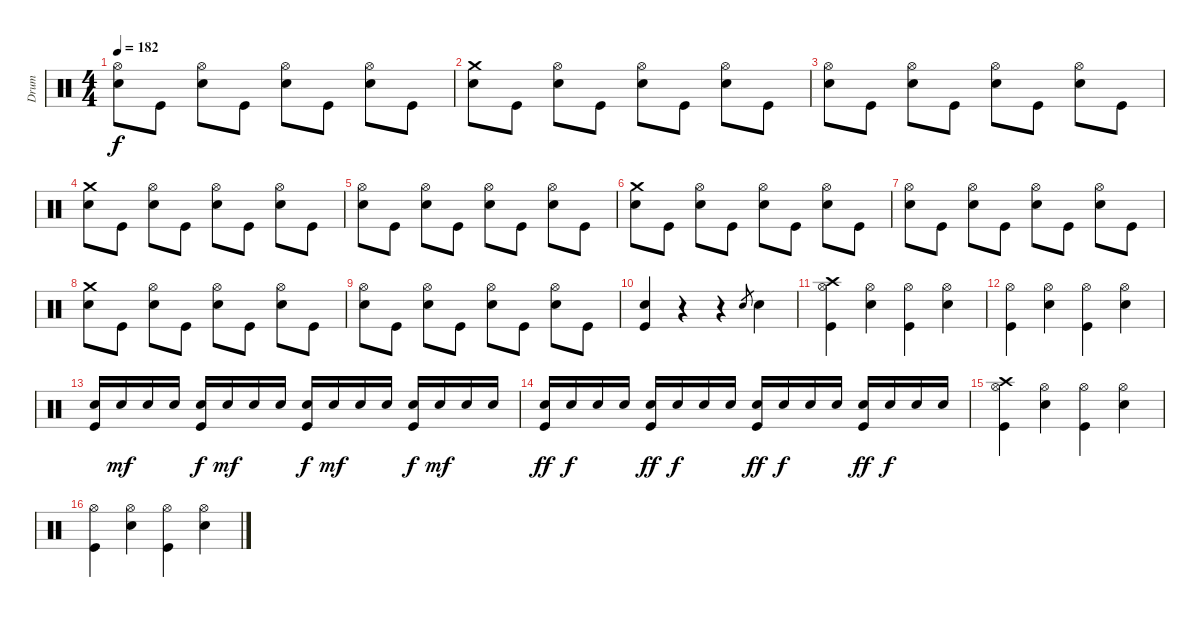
\track ("Drum" "Drum") {instrument percussion}
\staff {score}
\articulation defaults
\ts (4 4)
\tempo 182
\clef neutral
\ks c
("Snare (hit) 2" "Hi-Hat (open)").8{dy f} "Kick (hit)".8 ("Snare (hit) 2" "Hi-Hat (open)").8 "Kick (hit)".8 ("Snare (hit) 2" "Hi-Hat (open)").8 "Kick (hit)".8 ("Snare (hit) 2" "Hi-Hat (open)").8 "Kick (hit)".8 |
("Crash medium (hit)" "Snare (hit) 2").8 "Kick (hit)".8 ("Snare (hit) 2" "Hi-Hat (open)").8 "Kick (hit)".8 ("Snare (hit) 2" "Hi-Hat (open)").8 "Kick (hit)".8 ("Snare (hit) 2" "Hi-Hat (open)").8 "Kick (hit)".8 |
("Snare (hit) 2" "Hi-Hat (open)").8 "Kick (hit)".8 ("Snare (hit) 2" "Hi-Hat (open)").8 "Kick (hit)".8 ("Snare (hit) 2" "Hi-Hat (open)").8 "Kick (hit)".8 ("Snare (hit) 2" "Hi-Hat (open)").8 "Kick (hit)".8 |
("Crash medium (hit)" "Snare (hit) 2").8 "Kick (hit)".8 ("Snare (hit) 2" "Hi-Hat (open)").8 "Kick (hit)".8 ("Snare (hit) 2" "Hi-Hat (open)").8 "Kick (hit)".8 ("Snare (hit) 2" "Hi-Hat (open)").8 "Kick (hit)".8 |
("Snare (hit) 2" "Hi-Hat (open)").8 "Kick (hit)".8 ("Snare (hit) 2" "Hi-Hat (open)").8 "Kick (hit)".8 ("Snare (hit) 2" "Hi-Hat (open)").8 "Kick (hit)".8 ("Snare (hit) 2" "Hi-Hat (open)").8 "Kick (hit)".8 |
("Crash medium (hit)" "Snare (hit) 2").8 "Kick (hit)".8 ("Snare (hit) 2" "Hi-Hat (open)").8 "Kick (hit)".8 ("Snare (hit) 2" "Hi-Hat (open)").8 "Kick (hit)".8 ("Snare (hit) 2" "Hi-Hat (open)").8 "Kick (hit)".8 |
("Snare (hit) 2" "Hi-Hat (open)").8 "Kick (hit)".8 ("Snare (hit) 2" "Hi-Hat (open)").8 "Kick (hit)".8 ("Snare (hit) 2" "Hi-Hat (open)").8 "Kick (hit)".8 ("Snare (hit) 2" "Hi-Hat (open)").8 "Kick (hit)".8 |
("Crash medium (hit)" "Snare (hit) 2").8 "Kick (hit)".8 ("Snare (hit) 2" "Hi-Hat (open)").8 "Kick (hit)".8 ("Snare (hit) 2" "Hi-Hat (open)").8 "Kick (hit)".8 ("Snare (hit) 2" "Hi-Hat (open)").8 "Kick (hit)".8 |
("Snare (hit) 2" "Hi-Hat (open)").8 "Kick (hit)".8 ("Snare (hit) 2" "Hi-Hat (open)").8 "Kick (hit)".8 ("Snare (hit) 2" "Hi-Hat (open)").8 "Kick (hit)".8 ("Snare (hit) 2" "Hi-Hat (open)").8 "Kick (hit)".8 |
("Snare (hit) 2" "Kick (hit)").4 r.4 r.4 "Snare (hit) 2".8{gr} "Snare (hit) 2".4 |
("Crash high (hit)" "Hi-Hat (open)" "Kick (hit)").4 ("Snare (hit) 2" "Hi-Hat (open)").4 ("Hi-Hat (open)" "Kick (hit)").4 ("Snare (hit) 2" "Hi-Hat (open)").4 |
("Hi-Hat (open)" "Kick (hit)").4 ("Snare (hit) 2" "Hi-Hat (open)").4 ("Hi-Hat (open)" "Kick (hit)").4 ("Snare (hit) 2" "Hi-Hat (open)").4 |
("Snare (hit) 2" "Kick (hit)").16 "Snare (hit) 2".16{dy mf} "Snare (hit) 2".16 "Snare (hit) 2".16 ("Snare (hit) 2" "Kick (hit)").16{dy f} "Snare (hit) 2".16{dy mf} "Snare (hit) 2".16 "Snare (hit) 2".16 ("Snare (hit) 2" "Kick (hit)").16{dy f} "Snare (hit) 2".16{dy mf} "Snare (hit) 2".16 "Snare (hit) 2".16 ("Snare (hit) 2" "Kick (hit)").16{dy f} "Snare (hit) 2".16{dy mf} "Snare (hit) 2".16 "Snare (hit) 2".16 |
("Snare (hit) 2" "Kick (hit)").16{dy ff} "Snare (hit) 2".16{dy f} "Snare (hit) 2".16 "Snare (hit) 2".16 ("Snare (hit) 2" "Kick (hit)").16{dy ff} "Snare (hit) 2".16{dy f} "Snare (hit) 2".16 "Snare (hit) 2".16 ("Snare (hit) 2" "Kick (hit)").16{dy ff} "Snare (hit) 2".16{dy f} "Snare (hit) 2".16 "Snare (hit) 2".16 ("Snare (hit) 2" "Kick (hit)").16{dy ff} "Snare (hit) 2".16{dy f} "Snare (hit) 2".16 "Snare (hit) 2".16 |
("Crash high (hit)" "Hi-Hat (open)" "Kick (hit)").4 ("Snare (hit) 2" "Hi-Hat (open)").4 ("Hi-Hat (open)" "Kick (hit)").4 ("Snare (hit) 2" "Hi-Hat (open)").4 |
("Hi-Hat (open)" "Kick (hit)").4 ("Snare (hit) 2" "Hi-Hat (open)").4 ("Hi-Hat (open)" "Kick (hit)").4 ("Snare (hit) 2" "Hi-Hat (open)").4
